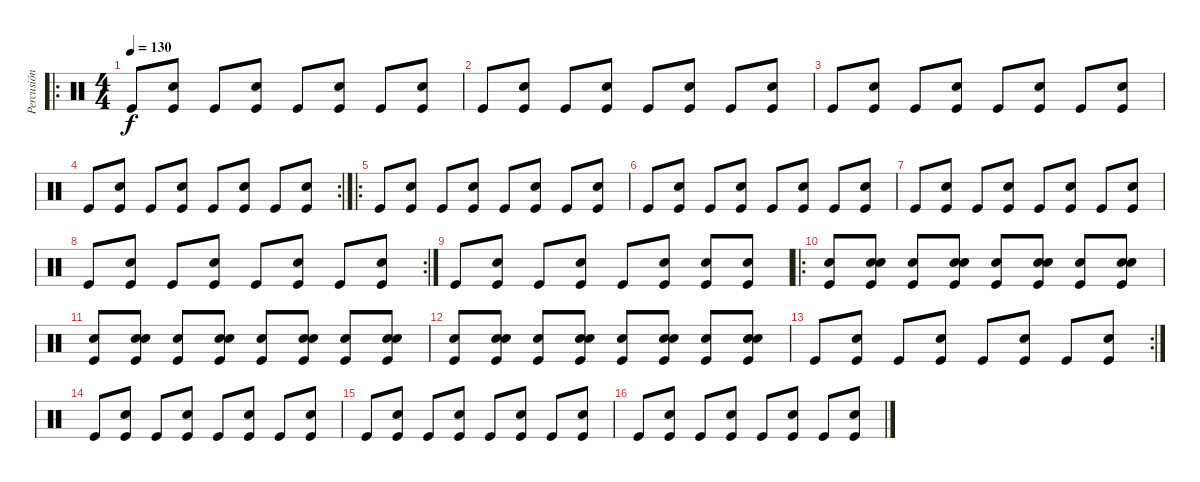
\track ("Percusión" "Percusión") {instrument percussion}
\staff {score}
\articulation defaults
\ro
\ts (4 4)
\tempo 130
\clef neutral
\ks c "Kick (hit)".8{dy f}
("Electric Snare (hit)" "Kick (hit)").8 "Kick (hit)".8 ("Electric Snare (hit)" "Kick (hit)").8 "Kick (hit)".8 ("Electric Snare (hit)" "Kick (hit)").8 "Kick (hit)".8 ("Electric Snare (hit)" "Kick (hit)").8 |
"Kick (hit)".8 ("Electric Snare (hit)" "Kick (hit)").8 "Kick (hit)".8 ("Electric Snare (hit)" "Kick (hit)").8 "Kick (hit)".8 ("Electric Snare (hit)" "Kick (hit)").8 "Kick (hit)".8 ("Electric Snare (hit)" "Kick (hit)").8 |
"Kick (hit)".8 ("Electric Snare (hit)" "Kick (hit)").8 "Kick (hit)".8 ("Electric Snare (hit)" "Kick (hit)").8 "Kick (hit)".8 ("Electric Snare (hit)" "Kick (hit)").8 "Kick (hit)".8 ("Electric Snare (hit)" "Kick (hit)").8 |
\rc 2 "Kick (hit)".8
("Electric Snare (hit)" "Kick (hit)").8 "Kick (hit)".8 ("Electric Snare (hit)" "Kick (hit)").8 "Kick (hit)".8 ("Electric Snare (hit)" "Kick (hit)").8 "Kick (hit)".8 ("Electric Snare (hit)" "Kick (hit)").8 |
\ro "Kick (hit)".8
("Electric Snare (hit)" "Kick (hit)").8 "Kick (hit)".8 ("Electric Snare (hit)" "Kick (hit)").8 "Kick (hit)".8 ("Electric Snare (hit)" "Kick (hit)").8 "Kick (hit)".8 ("Electric Snare (hit)" "Kick (hit)").8 |
"Kick (hit)".8 ("Electric Snare (hit)" "Kick (hit)").8 "Kick (hit)".8 ("Electric Snare (hit)" "Kick (hit)").8 "Kick (hit)".8 ("Electric Snare (hit)" "Kick (hit)").8 "Kick (hit)".8 ("Electric Snare (hit)" "Kick (hit)").8 |
"Kick (hit)".8 ("Electric Snare (hit)" "Kick (hit)").8 "Kick (hit)".8 ("Electric Snare (hit)" "Kick (hit)").8 "Kick (hit)".8 ("Electric Snare (hit)" "Kick (hit)").8 "Kick (hit)".8 ("Electric Snare (hit)" "Kick (hit)").8 |
\rc 2 "Kick (hit)".8
("Electric Snare (hit)" "Kick (hit)").8 "Kick (hit)".8 ("Electric Snare (hit)" "Kick (hit)").8 "Kick (hit)".8 ("Electric Snare (hit)" "Kick (hit)").8 "Kick (hit)".8 ("Electric Snare (hit)" "Kick (hit)").8 |
"Kick (hit)".8 ("Electric Snare (hit)" "Kick (hit)").8 "Kick (hit)".8 ("Electric Snare (hit)" "Kick (hit)").8 "Kick (hit)".8 ("Electric Snare (hit)" "Kick (hit)").8 ("Electric Snare (hit)" "Kick (hit)").8 ("Electric Snare (hit)" "Kick (hit)").8 |
\ro
("Hand Clap (hit)" "Kick (hit)").8 ("Hand Clap (hit)" "Electric Snare (hit)" "Kick (hit)").8 ("Hand Clap (hit)" "Kick (hit)").8 ("Hand Clap (hit)" "Electric Snare (hit)" "Kick (hit)").8 ("Hand Clap (hit)" "Kick (hit)").8 ("Hand Clap (hit)" "Electric Snare (hit)" "Kick (hit)").8 ("Hand Clap (hit)" "Kick (hit)").8 ("Hand Clap (hit)" "Electric Snare (hit)" "Kick (hit)").8 |
("Hand Clap (hit)" "Kick (hit)").8 ("Hand Clap (hit)" "Electric Snare (hit)" "Kick (hit)").8 ("Hand Clap (hit)" "Kick (hit)").8 ("Hand Clap (hit)" "Electric Snare (hit)" "Kick (hit)").8 ("Hand Clap (hit)" "Kick (hit)").8 ("Hand Clap (hit)" "Electric Snare (hit)" "Kick (hit)").8 ("Hand Clap (hit)" "Kick (hit)").8 ("Hand Clap (hit)" "Electric Snare (hit)" "Kick (hit)").8 |
("Hand Clap (hit)" "Kick (hit)").8 ("Hand Clap (hit)" "Electric Snare (hit)" "Kick (hit)").8 ("Hand Clap (hit)" "Kick (hit)").8 ("Hand Clap (hit)" "Electric Snare (hit)" "Kick (hit)").8 ("Hand Clap (hit)" "Kick (hit)").8 ("Hand Clap (hit)" "Electric Snare (hit)" "Kick (hit)").8 ("Hand Clap (hit)" "Kick (hit)").8 ("Hand Clap (hit)" "Electric Snare (hit)" "Kick (hit)").8 |
\rc 2 "Kick (hit)".8
("Electric Snare (hit)" "Kick (hit)").8 "Kick (hit)".8 ("Electric Snare (hit)" "Kick (hit)").8 "Kick (hit)".8 ("Electric Snare (hit)" "Kick (hit)").8 "Kick (hit)".8 ("Electric Snare (hit)" "Kick (hit)").8 |
"Kick (hit)".8 ("Electric Snare (hit)" "Kick (hit)").8 "Kick (hit)".8 ("Electric Snare (hit)" "Kick (hit)").8 "Kick (hit)".8 ("Electric Snare (hit)" "Kick (hit)").8 "Kick (hit)".8 ("Electric Snare (hit)" "Kick (hit)").8 |
"Kick (hit)".8 ("Electric Snare (hit)" "Kick (hit)").8 "Kick (hit)".8 ("Electric Snare (hit)" "Kick (hit)").8 "Kick (hit)".8 ("Electric Snare (hit)" "Kick (hit)").8 "Kick (hit)".8 ("Electric Snare (hit)" "Kick (hit)").8 |
"Kick (hit)".8 ("Electric Snare (hit)" "Kick (hit)").8 "Kick (hit)".8 ("Electric Snare (hit)" "Kick (hit)").8 "Kick (hit)".8 ("Electric Snare (hit)" "Kick (hit)").8 "Kick (hit)".8 ("Electric Snare (hit)" "Kick (hit)").8
